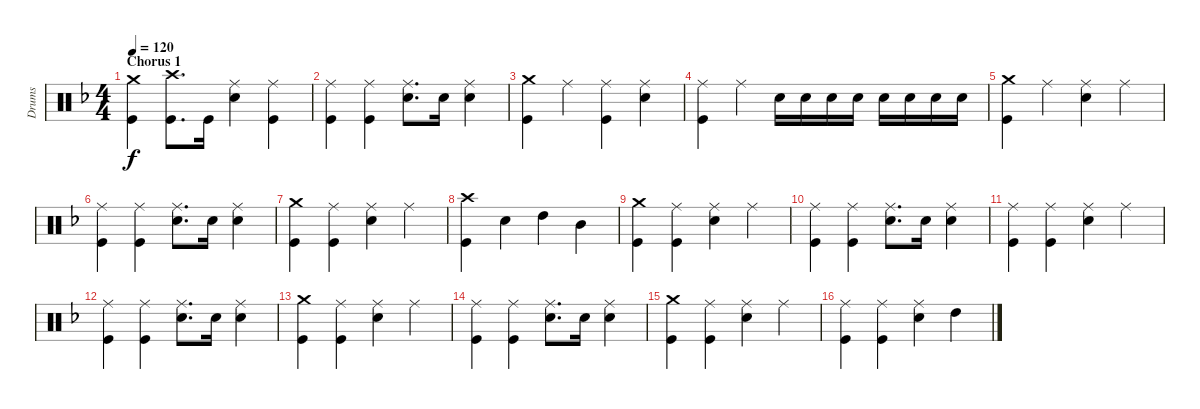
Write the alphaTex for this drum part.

\track ("Drums" "Drums") {instrument percussion}
\staff {score}
\articulation defaults
\ts (4 4)
\section ("" "Chorus 1")
\tempo 120
\clef neutral
\ks f
("Crash medium (hit)" "Kick (hit)").4{dy f} ("Crash high (hit)" "Kick (hit)").8{d} "Kick (hit)".16 ("Ride (middle)" "Snare (hit) 2").4 ("Ride (middle)" "Kick (hit)").4 |
("Ride (middle)" "Kick (hit)").4 ("Ride (middle)" "Kick (hit)").4 ("Ride (middle)" "Snare (hit) 2").8{d} "Snare (hit) 2".16 ("Ride (middle)" "Snare (hit) 2").4 |
("Crash medium (hit)" "Kick (hit)").4 "Ride (middle)".4 ("Ride (middle)" "Kick (hit)").4 ("Ride (middle)" "Snare (hit) 2").4 |
("Ride (middle)" "Kick (hit)").4 "Ride (middle)".4 "Snare (hit) 2".16 "Snare (hit) 2".16 "Snare (hit) 2".16 "Snare (hit) 2".16 "Snare (hit) 2".16 "Snare (hit) 2".16 "Snare (hit) 2".16 "Snare (hit) 2".16 |
("Crash medium (hit)" "Kick (hit)").4 "Ride (middle)".4 ("Ride (middle)" "Snare (hit) 2").4 "Ride (middle)".4 |
("Ride (middle)" "Kick (hit)").4 ("Ride (middle)" "Kick (hit)").4 ("Ride (middle)" "Snare (hit) 2").8{d} "Snare (hit) 2".16 ("Ride (middle)" "Snare (hit) 2").4 |
("Crash medium (hit)" "Kick (hit)").4 ("Ride (middle)" "Kick (hit)").4 ("Ride (middle)" "Snare (hit) 2").4 "Ride (middle)".4 |
("Crash high (hit)" "Kick (hit)").4 "Snare (hit) 2".4 "High Tom (hit)".4 "Mid Tom (hit)".4 |
("Crash medium (hit)" "Kick (hit)").4 ("Ride (middle)" "Kick (hit)").4 ("Ride (middle)" "Snare (hit) 2").4 "Ride (middle)".4 |
("Ride (middle)" "Kick (hit)").4 ("Ride (middle)" "Kick (hit)").4 ("Ride (middle)" "Snare (hit) 2").8{d} "Snare (hit) 2".16 ("Ride (middle)" "Snare (hit) 2").4 |
("Ride (middle)" "Kick (hit)").4 ("Ride (middle)" "Kick (hit)").4 ("Ride (middle)" "Snare (hit) 2").4 "Ride (middle)".4 |
("Ride (middle)" "Kick (hit)").4 ("Ride (middle)" "Kick (hit)").4 ("Ride (middle)" "Snare (hit) 2").8{d} "Snare (hit) 2".16 ("Ride (middle)" "Snare (hit) 2").4 |
("Crash medium (hit)" "Kick (hit)").4 ("Ride (middle)" "Kick (hit)").4 ("Ride (middle)" "Snare (hit) 2").4 "Ride (middle)".4 |
("Ride (middle)" "Kick (hit)").4 ("Ride (middle)" "Kick (hit)").4 ("Ride (middle)" "Snare (hit) 2").8{d} "Snare (hit) 2".16 ("Ride (middle)" "Snare (hit) 2").4 |
("Crash medium (hit)" "Kick (hit)").4 ("Ride (middle)" "Kick (hit)").4 ("Ride (middle)" "Snare (hit) 2").4 "Ride (middle)".4 |
("Ride (middle)" "Kick (hit)").4 ("Ride (middle)" "Kick (hit)").4 ("Ride (middle)" "Snare (hit) 2").4 "High Tom (hit)".4
